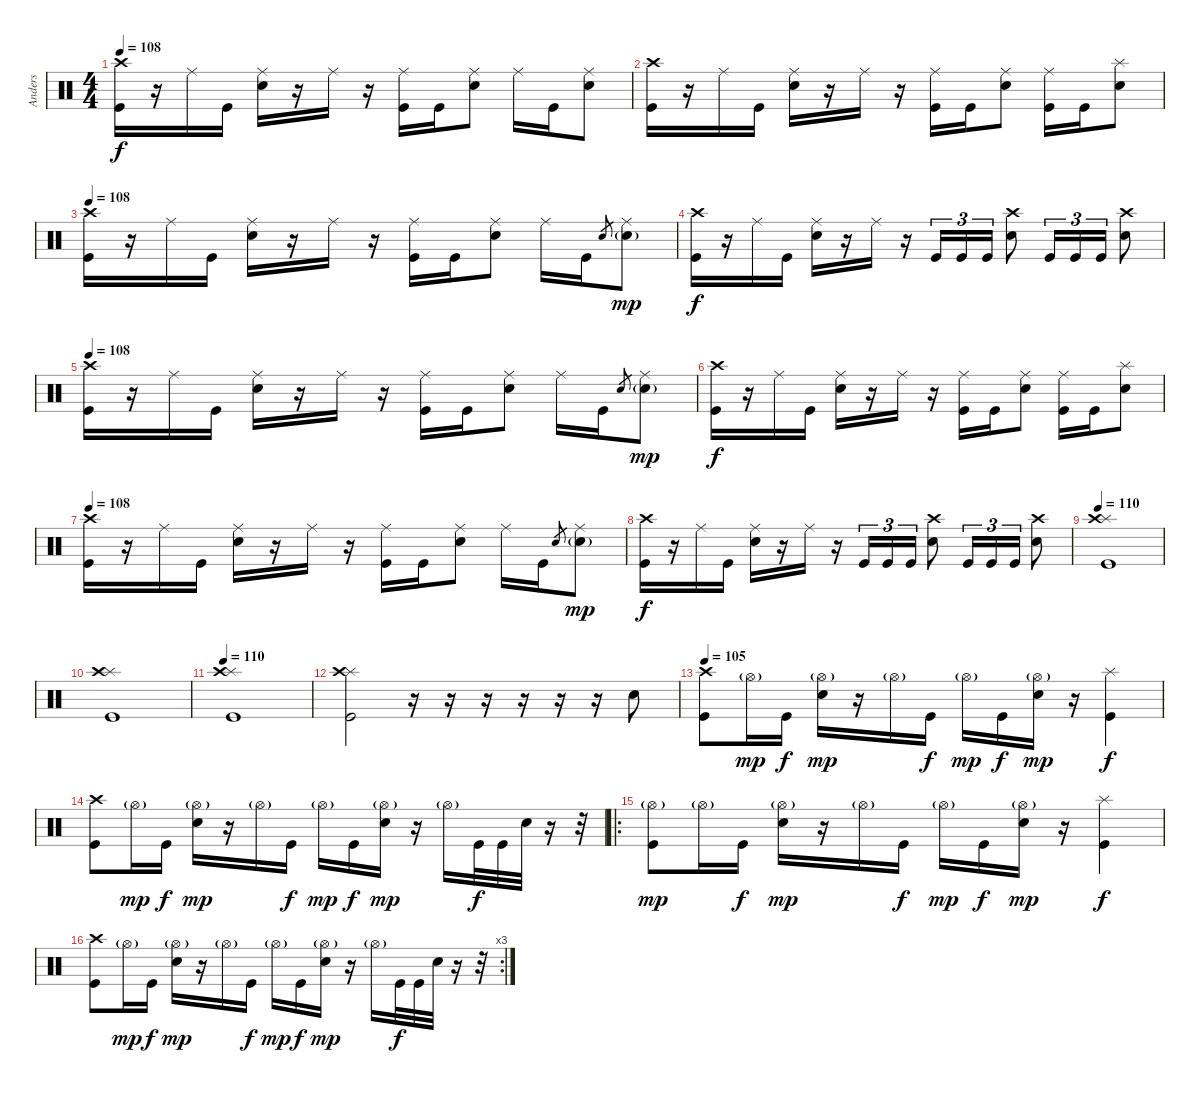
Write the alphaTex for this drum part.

\track ("Anders" "Anders") {instrument percussion}
\staff {score}
\articulation defaults
\ts (4 4)
\tempo 109
\tempo 108
\clef neutral
\ks c
("Crash high (hit)" "Kick (hit)").16{dy f} r.16 "Ride (middle)".16 "Kick (hit)".16 ("Ride (middle)" "Snare (hit) 2").16 r.16 "Ride (middle)".16 r.16 ("Ride (middle)" "Kick (hit)").16 "Kick (hit)".16 ("Ride (middle)" "Snare (hit) 2").8 "Ride (middle)".16 "Kick (hit)".16 ("Ride (middle)" "Snare (hit) 2").8 |
("Crash high (hit)" "Kick (hit)").16 r.16 "Ride (middle)".16 "Kick (hit)".16 ("Ride (middle)" "Snare (hit) 2").16 r.16 "Ride (middle)".16 r.16 ("Ride (middle)" "Kick (hit)").16 "Kick (hit)".16 ("Ride (middle)" "Snare (hit) 2").8 ("Ride (middle)" "Kick (hit)").16 "Kick (hit)".16 ("Splash (hit)" "Snare (hit) 2").8 |
\tempo 109
\tempo 108
("Crash high (hit)" "Kick (hit)").16 r.16 "Ride (middle)".16 "Kick (hit)".16 ("Ride (middle)" "Snare (hit) 2").16 r.16 "Ride (middle)".16 r.16 ("Ride (middle)" "Kick (hit)").16 "Kick (hit)".16 ("Ride (middle)" "Snare (hit) 2").8 "Ride (middle)".16 "Kick (hit)".16 "Snare (hit) 2".8{gr} ("Ride (middle)" "Snare (hit) 2"{g}).8{dy mp} |
("Crash high (hit)" "Kick (hit)").16{dy f} r.16 "Ride (middle)".16 "Kick (hit)".16 ("Ride (middle)" "Snare (hit) 2").16 r.16 "Ride (middle)".16 r.16 "Kick (hit)".16{tu (3 2)} "Kick (hit)".16{tu (3 2)} "Kick (hit)".16{tu (3 2)} ("Crash high (hit)" "Snare (hit) 2").8 "Kick (hit)".16{tu (3 2)} "Kick (hit)".16{tu (3 2)} "Kick (hit)".16{tu (3 2)} ("Crash high (hit)" "Snare (hit) 2").8 |
\tempo 109
\tempo 108
("Crash high (hit)" "Kick (hit)").16 r.16 "Ride (middle)".16 "Kick (hit)".16 ("Ride (middle)" "Snare (hit) 2").16 r.16 "Ride (middle)".16 r.16 ("Ride (middle)" "Kick (hit)").16 "Kick (hit)".16 ("Ride (middle)" "Snare (hit) 2").8 "Ride (middle)".16 "Kick (hit)".16 "Snare (hit) 2".8{gr} ("Ride (middle)" "Snare (hit) 2"{g}).8{dy mp} |
("Crash high (hit)" "Kick (hit)").16{dy f} r.16 "Ride (middle)".16 "Kick (hit)".16 ("Ride (middle)" "Snare (hit) 2").16 r.16 "Ride (middle)".16 r.16 ("Ride (middle)" "Kick (hit)").16 "Kick (hit)".16 ("Ride (middle)" "Snare (hit) 2").8 ("Ride (middle)" "Kick (hit)").16 "Kick (hit)".16 ("Splash (hit)" "Snare (hit) 2").8 |
\tempo 108
("Crash high (hit)" "Kick (hit)").16 r.16 "Ride (middle)".16 "Kick (hit)".16 ("Ride (middle)" "Snare (hit) 2").16 r.16 "Ride (middle)".16 r.16 ("Ride (middle)" "Kick (hit)").16 "Kick (hit)".16 ("Ride (middle)" "Snare (hit) 2").8 "Ride (middle)".16 "Kick (hit)".16 "Snare (hit) 2".8{gr} ("Ride (middle)" "Snare (hit) 2"{g}).8{dy mp} |
("Crash high (hit)" "Kick (hit)").16{dy f} r.16 "Ride (middle)".16 "Kick (hit)".16 ("Ride (middle)" "Snare (hit) 2").16 r.16 "Ride (middle)".16 r.16 "Kick (hit)".16{tu (3 2)} "Kick (hit)".16{tu (3 2)} "Kick (hit)".16{tu (3 2)} ("Crash high (hit)" "Snare (hit) 2").8 "Kick (hit)".16{tu (3 2)} "Kick (hit)".16{tu (3 2)} "Kick (hit)".16{tu (3 2)} ("Crash high (hit)" "Snare (hit) 2").8 |
\tempo 110
("Splash (hit)" "Crash high (hit)" "Kick (hit)").1 |
("Splash (hit)" "Crash high (hit)" "Kick (hit)").1 |
\tempo 110
("Splash (hit)" "Crash high (hit)" "Kick (hit)").1 |
("Splash (hit)" "Crash high (hit)" "Kick (hit)").2 r.16 r.16 r.16 r.16 r.16 r.16 "Snare (hit) 2".8 |
\tempo 105
("Crash high (hit)" "Kick (hit)").8 "Hi-Hat (open)"{g}.16{dy mp} "Kick (hit)".16{dy f} ("Hi-Hat (open)"{g} "Snare (hit) 2").16{dy mp} r.16 "Hi-Hat (open)"{g}.16 "Kick (hit)".16{dy f} "Hi-Hat (open)"{g}.16{dy mp} "Kick (hit)".16{dy f} ("Hi-Hat (open)"{g} "Snare (hit) 2").16{dy mp} r.16 ("Splash (hit)" "Kick (hit)").4{dy f} |
("Crash high (hit)" "Kick (hit)").8 "Hi-Hat (open)"{g}.16{dy mp} "Kick (hit)".16{dy f} ("Hi-Hat (open)"{g} "Snare (hit) 2").16{dy mp} r.16 "Hi-Hat (open)"{g}.16 "Kick (hit)".16{dy f} "Hi-Hat (open)"{g}.16{dy mp} "Kick (hit)".16{dy f} ("Hi-Hat (open)"{g} "Snare (hit) 2").16{dy mp} r.16 "Hi-Hat (open)"{g}.16 "Kick (hit)".32{dy f} "Kick (hit)".32 "Snare (hit) 2".32 r.16 r.32 |
\ro
("Hi-Hat (open)"{g} "Kick (hit)").8{dy mp} "Hi-Hat (open)"{g}.16 "Kick (hit)".16{dy f} ("Hi-Hat (open)"{g} "Snare (hit) 2").16{dy mp} r.16 "Hi-Hat (open)"{g}.16 "Kick (hit)".16{dy f} "Hi-Hat (open)"{g}.16{dy mp} "Kick (hit)".16{dy f} ("Hi-Hat (open)"{g} "Snare (hit) 2").16{dy mp} r.16 ("Splash (hit)" "Kick (hit)").4{dy f} |
\rc 3
("Crash high (hit)" "Kick (hit)").8 "Hi-Hat (open)"{g}.16{dy mp} "Kick (hit)".16{dy f} ("Hi-Hat (open)"{g} "Snare (hit) 2").16{dy mp} r.16 "Hi-Hat (open)"{g}.16 "Kick (hit)".16{dy f} "Hi-Hat (open)"{g}.16{dy mp} "Kick (hit)".16{dy f} ("Hi-Hat (open)"{g} "Snare (hit) 2").16{dy mp} r.16 "Hi-Hat (open)"{g}.16 "Kick (hit)".32{dy f} "Kick (hit)".32 "Snare (hit) 2".32 r.16 r.32
